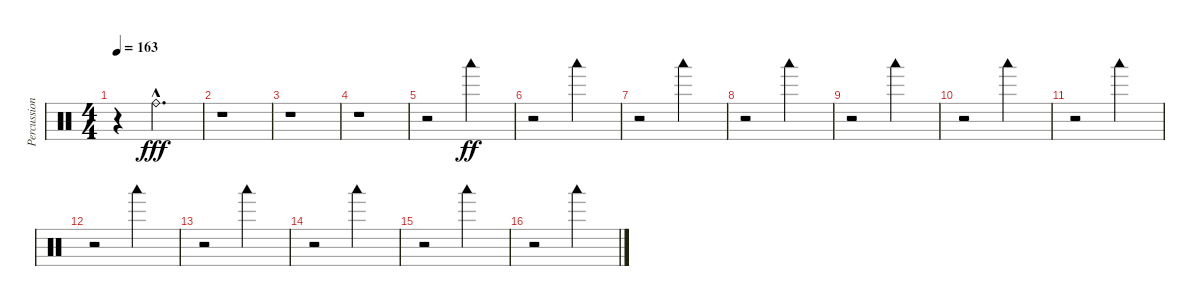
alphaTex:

\track ("Percussion" "Percussion") {instrument percussion}
\staff {score}
\articulation defaults
\ts (4 4)
\tempo 163
\clef neutral
\ks c
r.4{dy f} "Ride (bell)"{hac}.2{d dy fff} |
r.1 |
r.1 |
r.1 |
r.2 "Woodblock low (hit)".2{dy ff} |
r.2 "Woodblock low (hit)".2 |
r.2 "Woodblock low (hit)".2 |
r.2 "Woodblock low (hit)".2 |
r.2 "Woodblock low (hit)".2 |
r.2 "Woodblock low (hit)".2 |
r.2 "Woodblock low (hit)".2 |
r.2 "Woodblock low (hit)".2 |
r.2 "Woodblock low (hit)".2 |
r.2 "Woodblock low (hit)".2 |
r.2 "Woodblock low (hit)".2 |
r.2 "Woodblock low (hit)".2
